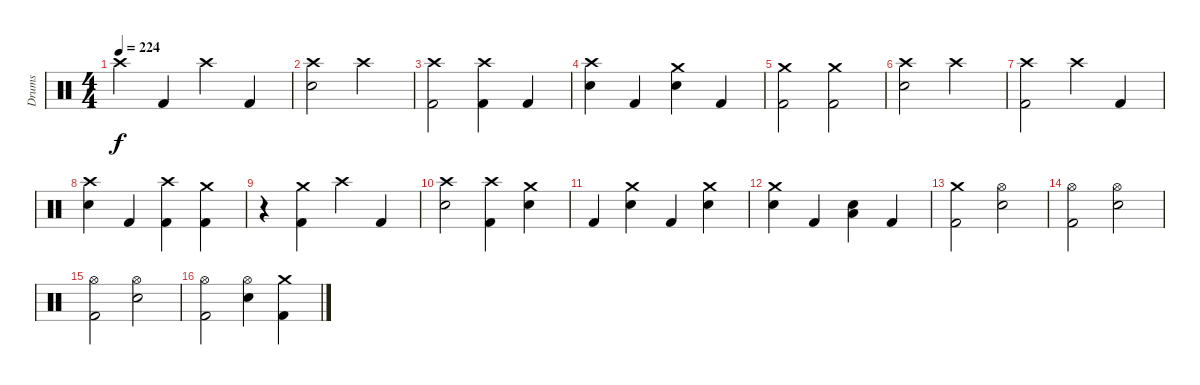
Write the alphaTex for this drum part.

\track ("Drums" "Drums") {instrument percussion}
\staff {score}
\articulation defaults
\ts (4 4)
\tempo 224
\clef neutral
\ks c "Crash high (hit)".4{dy f} "Kick (hit) 2".4 "Crash high (hit)".4 "Kick (hit) 2".4
|
("Electric Snare (hit)" "Crash high (hit)").2 "Crash high (hit)".2 |
("Crash high (hit)" "Kick (hit) 2").2 ("Crash high (hit)" "Kick (hit) 2").4 "Kick (hit) 2".4 |
("Crash high (hit)" "Electric Snare (hit)").4 "Kick (hit) 2".4 ("Crash medium (hit)" "Electric Snare (hit)").4 "Kick (hit) 2".4 |
("Kick (hit) 2" "Crash medium (hit)").2 ("Crash medium (hit)" "Kick (hit) 2").2 |
("Crash high (hit)" "Electric Snare (hit)").2 "Crash high (hit)".2 |
("Crash high (hit)" "Kick (hit) 2").2 "Crash high (hit)".4 "Kick (hit) 2".4 |
("Electric Snare (hit)" "Crash high (hit)").4 "Kick (hit) 2".4 ("Kick (hit) 2" "Crash high (hit)").4 ("Kick (hit) 2" "Crash medium (hit)").4 |
r.4 ("Kick (hit) 2" "Crash medium (hit)").4 "Crash high (hit)".4 "Kick (hit) 2".4 |
("Electric Snare (hit)" "Crash high (hit)").2 ("Kick (hit) 2" "Crash high (hit)").4 ("Electric Snare (hit)" "Crash medium (hit)").4 |
"Kick (hit) 2".4 ("Electric Snare (hit)" "Crash medium (hit)").4 "Kick (hit) 2".4 ("Electric Snare (hit)" "Crash medium (hit)").4 |
("Electric Snare (hit)" "Crash medium (hit)").4 "Kick (hit) 2".4 ("Electric Snare (hit)" "Low Floor Tom (hit)").4 "Kick (hit) 2".4 |
("Crash medium (hit)" "Kick (hit) 2").2 ("Hi-Hat (open)" "Electric Snare (hit)").2 |
("Hi-Hat (open)" "Kick (hit) 2").2 ("Hi-Hat (open)" "Electric Snare (hit)").2 |
("Hi-Hat (open)" "Kick (hit) 2").2 ("Hi-Hat (open)" "Electric Snare (hit)").2 |
("Hi-Hat (open)" "Kick (hit) 2").2 ("Hi-Hat (open)" "Electric Snare (hit)").4 ("Kick (hit) 2" "Crash medium (hit)").4
